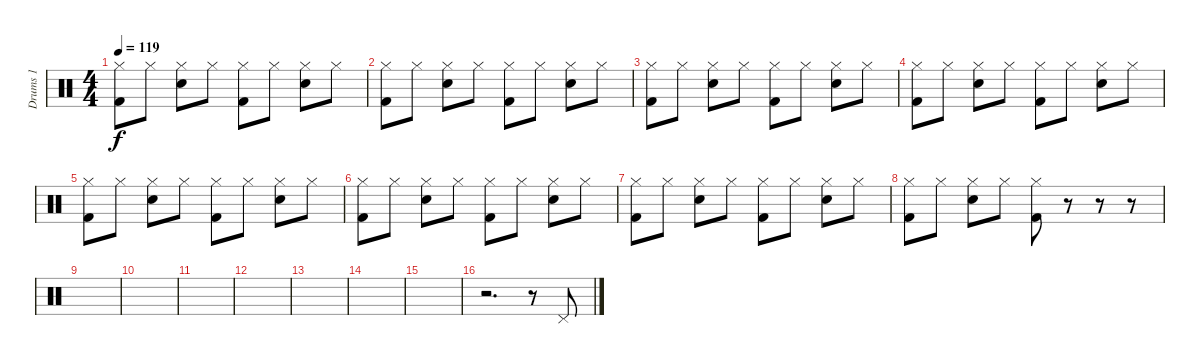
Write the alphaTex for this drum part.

\track ("Drums 1" "Drums 1") {instrument percussion}
\staff {score}
\articulation defaults
\ts (4 4)
\tempo 119
\clef neutral
\ks c
("Hi-Hat (closed)" "Kick (hit) 2").8{dy f} "Hi-Hat (closed)".8 ("Hi-Hat (closed)" "Electric Snare (hit)").8 "Hi-Hat (closed)".8 ("Hi-Hat (closed)" "Kick (hit) 2").8 "Hi-Hat (closed)".8 ("Hi-Hat (closed)" "Electric Snare (hit)").8 "Hi-Hat (closed)".8 |
("Hi-Hat (closed)" "Kick (hit) 2").8 "Hi-Hat (closed)".8 ("Hi-Hat (closed)" "Electric Snare (hit)").8 "Hi-Hat (closed)".8 ("Hi-Hat (closed)" "Kick (hit) 2").8 "Hi-Hat (closed)".8 ("Hi-Hat (closed)" "Electric Snare (hit)").8 "Hi-Hat (closed)".8 |
("Hi-Hat (closed)" "Kick (hit) 2").8 "Hi-Hat (closed)".8 ("Hi-Hat (closed)" "Electric Snare (hit)").8 "Hi-Hat (closed)".8 ("Hi-Hat (closed)" "Kick (hit) 2").8 "Hi-Hat (closed)".8 ("Hi-Hat (closed)" "Electric Snare (hit)").8 "Hi-Hat (closed)".8 |
("Hi-Hat (closed)" "Kick (hit) 2").8 "Hi-Hat (closed)".8 ("Hi-Hat (closed)" "Electric Snare (hit)").8 "Hi-Hat (closed)".8 ("Hi-Hat (closed)" "Kick (hit) 2").8 "Hi-Hat (closed)".8 ("Hi-Hat (closed)" "Electric Snare (hit)").8 "Hi-Hat (closed)".8 |
("Hi-Hat (closed)" "Kick (hit) 2").8 "Hi-Hat (closed)".8 ("Hi-Hat (closed)" "Electric Snare (hit)").8 "Hi-Hat (closed)".8 ("Hi-Hat (closed)" "Kick (hit) 2").8 "Hi-Hat (closed)".8 ("Hi-Hat (closed)" "Electric Snare (hit)").8 "Hi-Hat (closed)".8 |
("Hi-Hat (closed)" "Kick (hit) 2").8 "Hi-Hat (closed)".8 ("Hi-Hat (closed)" "Electric Snare (hit)").8 "Hi-Hat (closed)".8 ("Hi-Hat (closed)" "Kick (hit) 2").8 "Hi-Hat (closed)".8 ("Hi-Hat (closed)" "Electric Snare (hit)").8 "Hi-Hat (closed)".8 |
("Hi-Hat (closed)" "Kick (hit) 2").8 "Hi-Hat (closed)".8 ("Hi-Hat (closed)" "Electric Snare (hit)").8 "Hi-Hat (closed)".8 ("Hi-Hat (closed)" "Kick (hit) 2").8 "Hi-Hat (closed)".8 ("Hi-Hat (closed)" "Electric Snare (hit)").8 "Hi-Hat (closed)".8 |
("Hi-Hat (closed)" "Kick (hit) 2").8 "Hi-Hat (closed)".8 ("Hi-Hat (closed)" "Electric Snare (hit)").8 "Hi-Hat (closed)".8 ("Hi-Hat (closed)" "Kick (hit) 2").8 r.8 r.8 r.8 |
|
|
|
|
|
|
|
r.2{d} r.8 "Pedal Hi-Hat (hit)".8
